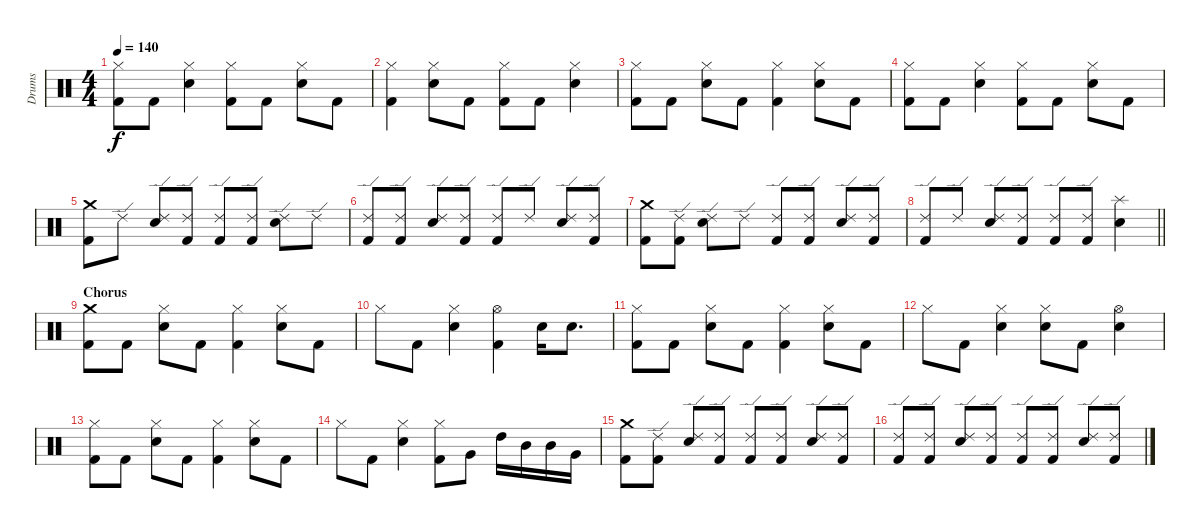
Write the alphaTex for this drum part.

\track ("Drums" "Drums") {instrument percussion}
\staff {score}
\articulation defaults
\ts (4 4)
\tempo 140
\clef neutral
\ks c
("Hi-Hat (closed)" "Kick (hit) 2").8{dy f} "Kick (hit) 2".8 ("Hi-Hat (closed)" "Electric Snare (hit)").4 ("Hi-Hat (closed)" "Kick (hit) 2").8 "Kick (hit) 2".8 ("Hi-Hat (closed)" "Electric Snare (hit)").8 "Kick (hit) 2".8 |
("Hi-Hat (closed)" "Kick (hit) 2").4 ("Hi-Hat (closed)" "Electric Snare (hit)").8 "Kick (hit) 2".8 ("Hi-Hat (closed)" "Kick (hit) 2").8 "Kick (hit) 2".8 ("Hi-Hat (closed)" "Electric Snare (hit)").4 |
("Hi-Hat (closed)" "Kick (hit) 2").8 "Kick (hit) 2".8 ("Hi-Hat (closed)" "Electric Snare (hit)").8 "Kick (hit) 2".8 ("Hi-Hat (closed)" "Kick (hit) 2").4 ("Hi-Hat (closed)" "Electric Snare (hit)").8 "Kick (hit) 2".8 |
("Hi-Hat (closed)" "Kick (hit) 2").8 "Kick (hit) 2".8 ("Hi-Hat (closed)" "Electric Snare (hit)").4 ("Hi-Hat (closed)" "Kick (hit) 2").8 "Kick (hit) 2".8 ("Hi-Hat (closed)" "Electric Snare (hit)").8 "Kick (hit) 2".8 |
("Crash medium (hit)" "Kick (hit) 2").8 "Ride (edge) 2".8 ("Ride (edge) 2" "Electric Snare (hit)").8 ("Ride (edge) 2" "Kick (hit) 2").8 ("Ride (edge) 2" "Kick (hit) 2").8 ("Ride (edge) 2" "Kick (hit) 2").8 ("Ride (edge) 2" "Electric Snare (hit)").8 "Ride (edge) 2".8 |
("Ride (edge) 2" "Kick (hit) 2").8 ("Ride (edge) 2" "Kick (hit) 2").8 ("Ride (edge) 2" "Electric Snare (hit)").8 ("Ride (edge) 2" "Kick (hit) 2").8 ("Ride (edge) 2" "Kick (hit) 2").8 "Ride (edge) 2".8 ("Ride (edge) 2" "Electric Snare (hit)").8 ("Ride (edge) 2" "Kick (hit) 2").8 |
("Crash medium (hit)" "Kick (hit) 2").8 ("Ride (edge) 2" "Kick (hit) 2").8 ("Ride (edge) 2" "Electric Snare (hit)").8 "Ride (edge) 2".8 ("Ride (edge) 2" "Kick (hit) 2").8 ("Ride (edge) 2" "Kick (hit) 2").8 ("Ride (edge) 2" "Electric Snare (hit)").8 ("Ride (edge) 2" "Kick (hit) 2").8 |
\barLineRight lightlight
("Ride (edge) 2" "Kick (hit) 2").8 "Ride (edge) 2".8 ("Ride (edge) 2" "Electric Snare (hit)").8 ("Ride (edge) 2" "Kick (hit) 2").8 ("Ride (edge) 2" "Kick (hit) 2").8 ("Ride (edge) 2" "Kick (hit) 2").8 ("Splash (hit)" "Electric Snare (hit)").4 |
\section ("" "Chorus")
("Crash medium (hit)" "Kick (hit) 2").8 "Kick (hit) 2".8 ("Hi-Hat (closed)" "Electric Snare (hit)").8 "Kick (hit) 2".8 ("Hi-Hat (closed)" "Kick (hit) 2").4 ("Hi-Hat (closed)" "Electric Snare (hit)").8 "Kick (hit) 2".8 |
"Hi-Hat (closed)".8 "Kick (hit) 2".8 ("Hi-Hat (closed)" "Electric Snare (hit)").4 ("Hi-Hat (open)" "Kick (hit) 2").4 "Electric Snare (hit)".16 "Electric Snare (hit)".8{d} |
("Hi-Hat (closed)" "Kick (hit) 2").8 "Kick (hit) 2".8 ("Hi-Hat (closed)" "Electric Snare (hit)").8 "Kick (hit) 2".8 ("Hi-Hat (closed)" "Kick (hit) 2").4 ("Hi-Hat (closed)" "Electric Snare (hit)").8 "Kick (hit) 2".8 |
"Hi-Hat (closed)".8 "Kick (hit) 2".8 ("Hi-Hat (closed)" "Electric Snare (hit)").4 ("Hi-Hat (closed)" "Electric Snare (hit)").8 "Kick (hit) 2".8 ("Hi-Hat (open)" "Electric Snare (hit)").4 |
("Hi-Hat (closed)" "Kick (hit) 2").8 "Kick (hit) 2".8 ("Hi-Hat (closed)" "Electric Snare (hit)").8 "Kick (hit) 2".8 ("Hi-Hat (closed)" "Kick (hit) 2").4 ("Hi-Hat (closed)" "Electric Snare (hit)").8 "Kick (hit) 2".8 |
"Hi-Hat (closed)".8 "Kick (hit) 2".8 ("Hi-Hat (closed)" "Electric Snare (hit)").4 ("Hi-Hat (closed)" "Kick (hit) 2").8 "Very Low Tom (hit)".8 "High Tom (hit)".16 "Mid Tom (hit)".16 "Mid Tom (hit)".16 "Very Low Tom (hit)".16 |
("Crash medium (hit)" "Kick (hit) 2").8 ("Ride (edge) 2" "Kick (hit) 2").8 ("Ride (edge) 2" "Electric Snare (hit)").8 ("Ride (edge) 2" "Kick (hit) 2").8 ("Ride (edge) 2" "Kick (hit) 2").8 ("Ride (edge) 2" "Kick (hit) 2").8 ("Ride (edge) 2" "Electric Snare (hit)").8 ("Ride (edge) 2" "Kick (hit) 2").8 |
("Ride (edge) 2" "Kick (hit) 2").8 ("Ride (edge) 2" "Kick (hit) 2").8 ("Ride (edge) 2" "Electric Snare (hit)").8 ("Ride (edge) 2" "Kick (hit) 2").8 ("Ride (edge) 2" "Kick (hit) 2").8 ("Ride (edge) 2" "Kick (hit) 2").8 ("Ride (edge) 2" "Electric Snare (hit)").8 ("Ride (edge) 2" "Kick (hit) 2").8
